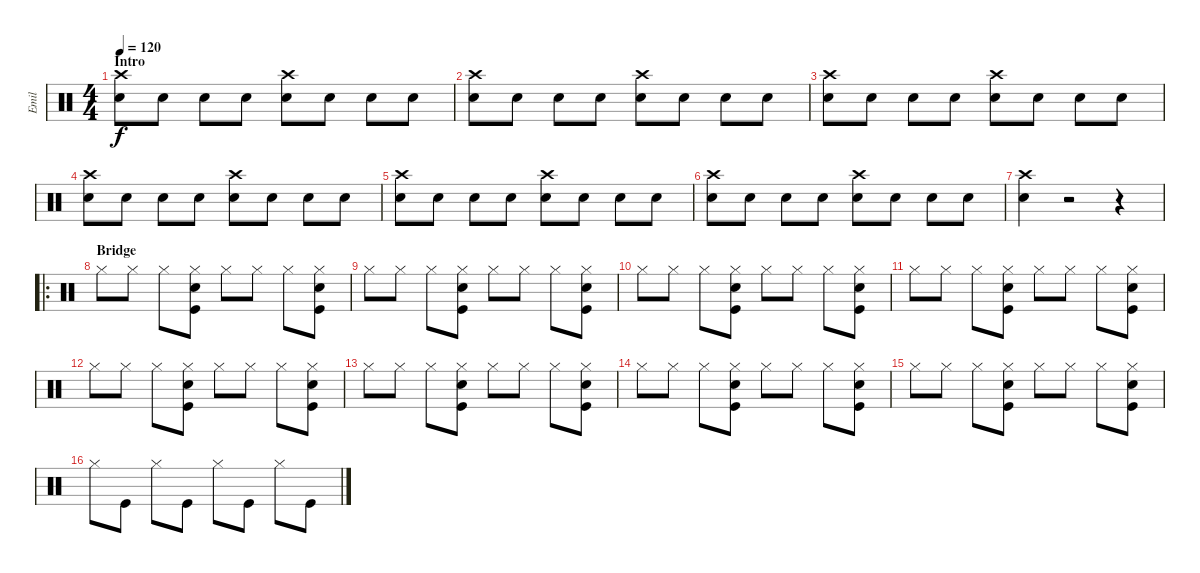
\track ("Emil" "Emil") {instrument percussion}
\staff {score}
\articulation defaults
\ts (4 4)
\section ("" "Intro")
\tempo 120
\clef neutral
\ks c
("Crash high (hit)" "Electric Snare (hit)").8{dy f} "Electric Snare (hit)".8 "Electric Snare (hit)".8 "Electric Snare (hit)".8 ("Crash high (hit)" "Electric Snare (hit)").8 "Electric Snare (hit)".8 "Electric Snare (hit)".8 "Electric Snare (hit)".8 |
("Crash high (hit)" "Electric Snare (hit)").8 "Electric Snare (hit)".8 "Electric Snare (hit)".8 "Electric Snare (hit)".8 ("Crash high (hit)" "Electric Snare (hit)").8 "Electric Snare (hit)".8 "Electric Snare (hit)".8 "Electric Snare (hit)".8 |
("Crash high (hit)" "Electric Snare (hit)").8 "Electric Snare (hit)".8 "Electric Snare (hit)".8 "Electric Snare (hit)".8 ("Crash high (hit)" "Electric Snare (hit)").8 "Electric Snare (hit)".8 "Electric Snare (hit)".8 "Electric Snare (hit)".8 |
("Crash high (hit)" "Electric Snare (hit)").8 "Electric Snare (hit)".8 "Electric Snare (hit)".8 "Electric Snare (hit)".8 ("Crash high (hit)" "Electric Snare (hit)").8 "Electric Snare (hit)".8 "Electric Snare (hit)".8 "Electric Snare (hit)".8 |
("Crash high (hit)" "Electric Snare (hit)").8 "Electric Snare (hit)".8 "Electric Snare (hit)".8 "Electric Snare (hit)".8 ("Crash high (hit)" "Electric Snare (hit)").8 "Electric Snare (hit)".8 "Electric Snare (hit)".8 "Electric Snare (hit)".8 |
("Crash high (hit)" "Electric Snare (hit)").8 "Electric Snare (hit)".8 "Electric Snare (hit)".8 "Electric Snare (hit)".8 ("Crash high (hit)" "Electric Snare (hit)").8 "Electric Snare (hit)".8 "Electric Snare (hit)".8 "Electric Snare (hit)".8 |
("Crash high (hit)" "Electric Snare (hit)").4 r.2 r.4 |
\ro
\section ("" "Bridge")
"Hi-Hat (closed)".8 "Hi-Hat (closed)".8 "Hi-Hat (closed)".8 ("Electric Snare (hit)" "Hi-Hat (closed)" "Kick (hit)").8 "Hi-Hat (closed)".8 "Hi-Hat (closed)".8 "Hi-Hat (closed)".8 ("Electric Snare (hit)" "Hi-Hat (closed)" "Kick (hit)").8 |
"Hi-Hat (closed)".8 "Hi-Hat (closed)".8 "Hi-Hat (closed)".8 ("Electric Snare (hit)" "Hi-Hat (closed)" "Kick (hit)").8 "Hi-Hat (closed)".8 "Hi-Hat (closed)".8 "Hi-Hat (closed)".8 ("Electric Snare (hit)" "Hi-Hat (closed)" "Kick (hit)").8 |
"Hi-Hat (closed)".8 "Hi-Hat (closed)".8 "Hi-Hat (closed)".8 ("Electric Snare (hit)" "Hi-Hat (closed)" "Kick (hit)").8 "Hi-Hat (closed)".8 "Hi-Hat (closed)".8 "Hi-Hat (closed)".8 ("Electric Snare (hit)" "Hi-Hat (closed)" "Kick (hit)").8 |
"Hi-Hat (closed)".8 "Hi-Hat (closed)".8 "Hi-Hat (closed)".8 ("Electric Snare (hit)" "Hi-Hat (closed)" "Kick (hit)").8 "Hi-Hat (closed)".8 "Hi-Hat (closed)".8 "Hi-Hat (closed)".8 ("Electric Snare (hit)" "Hi-Hat (closed)" "Kick (hit)").8 |
"Hi-Hat (closed)".8 "Hi-Hat (closed)".8 "Hi-Hat (closed)".8 ("Electric Snare (hit)" "Hi-Hat (closed)" "Kick (hit)").8 "Hi-Hat (closed)".8 "Hi-Hat (closed)".8 "Hi-Hat (closed)".8 ("Electric Snare (hit)" "Hi-Hat (closed)" "Kick (hit)").8 |
"Hi-Hat (closed)".8 "Hi-Hat (closed)".8 "Hi-Hat (closed)".8 ("Electric Snare (hit)" "Hi-Hat (closed)" "Kick (hit)").8 "Hi-Hat (closed)".8 "Hi-Hat (closed)".8 "Hi-Hat (closed)".8 ("Electric Snare (hit)" "Hi-Hat (closed)" "Kick (hit)").8 |
"Hi-Hat (closed)".8 "Hi-Hat (closed)".8 "Hi-Hat (closed)".8 ("Electric Snare (hit)" "Hi-Hat (closed)" "Kick (hit)").8 "Hi-Hat (closed)".8 "Hi-Hat (closed)".8 "Hi-Hat (closed)".8 ("Electric Snare (hit)" "Hi-Hat (closed)" "Kick (hit)").8 |
"Hi-Hat (closed)".8 "Hi-Hat (closed)".8 "Hi-Hat (closed)".8 ("Electric Snare (hit)" "Hi-Hat (closed)" "Kick (hit)").8 "Hi-Hat (closed)".8 "Hi-Hat (closed)".8 "Hi-Hat (closed)".8 ("Electric Snare (hit)" "Hi-Hat (closed)" "Kick (hit)").8 |
"Hi-Hat (closed)".8 "Kick (hit)".8 "Hi-Hat (closed)".8 "Kick (hit)".8 "Hi-Hat (closed)".8 "Kick (hit)".8 "Hi-Hat (closed)".8 "Kick (hit)".8
